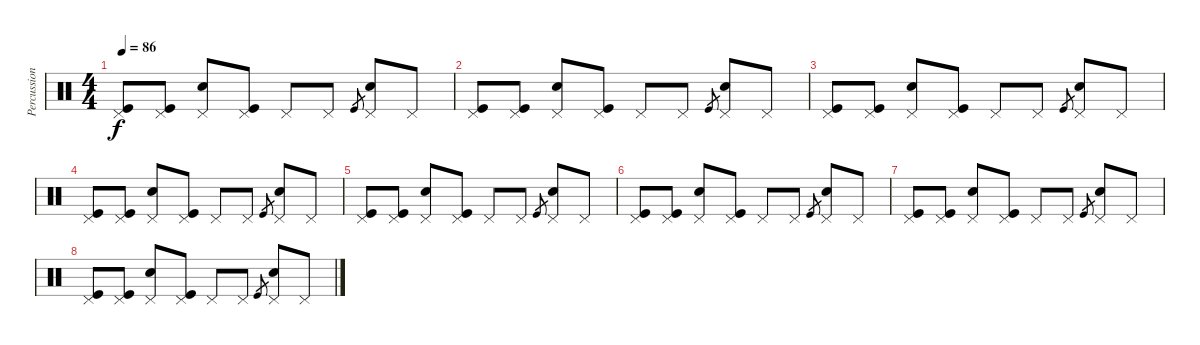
\track ("Percussions" "Percussion") {instrument percussion}
\staff {score}
\articulation defaults
\ts (4 4)
\tempo 86
\clef neutral
\ks c
("Pedal Hi-Hat (hit)" "Kick (hit)").8{dy f} ("Pedal Hi-Hat (hit)" "Kick (hit)").8 ("Pedal Hi-Hat (hit)" "Electric Snare (hit)").8 ("Pedal Hi-Hat (hit)" "Kick (hit)").8 "Pedal Hi-Hat (hit)".8 "Pedal Hi-Hat (hit)".8 "Kick (hit)".8{gr} ("Pedal Hi-Hat (hit)" "Electric Snare (hit)").8 "Pedal Hi-Hat (hit)".8 |
("Pedal Hi-Hat (hit)" "Kick (hit)").8 ("Pedal Hi-Hat (hit)" "Kick (hit)").8 ("Pedal Hi-Hat (hit)" "Electric Snare (hit)").8 ("Pedal Hi-Hat (hit)" "Kick (hit)").8 "Pedal Hi-Hat (hit)".8 "Pedal Hi-Hat (hit)".8 "Kick (hit)".8{gr} ("Pedal Hi-Hat (hit)" "Electric Snare (hit)").8 "Pedal Hi-Hat (hit)".8 |
("Pedal Hi-Hat (hit)" "Kick (hit)").8 ("Pedal Hi-Hat (hit)" "Kick (hit)").8 ("Pedal Hi-Hat (hit)" "Electric Snare (hit)").8 ("Pedal Hi-Hat (hit)" "Kick (hit)").8 "Pedal Hi-Hat (hit)".8 "Pedal Hi-Hat (hit)".8 "Kick (hit)".8{gr} ("Pedal Hi-Hat (hit)" "Electric Snare (hit)").8 "Pedal Hi-Hat (hit)".8 |
("Pedal Hi-Hat (hit)" "Kick (hit)").8 ("Pedal Hi-Hat (hit)" "Kick (hit)").8 ("Pedal Hi-Hat (hit)" "Electric Snare (hit)").8 ("Pedal Hi-Hat (hit)" "Kick (hit)").8 "Pedal Hi-Hat (hit)".8 "Pedal Hi-Hat (hit)".8 "Kick (hit)".8{gr} ("Pedal Hi-Hat (hit)" "Electric Snare (hit)").8 "Pedal Hi-Hat (hit)".8 |
("Pedal Hi-Hat (hit)" "Kick (hit)").8 ("Pedal Hi-Hat (hit)" "Kick (hit)").8 ("Pedal Hi-Hat (hit)" "Electric Snare (hit)").8 ("Pedal Hi-Hat (hit)" "Kick (hit)").8 "Pedal Hi-Hat (hit)".8 "Pedal Hi-Hat (hit)".8 "Kick (hit)".8{gr} ("Pedal Hi-Hat (hit)" "Electric Snare (hit)").8 "Pedal Hi-Hat (hit)".8 |
("Pedal Hi-Hat (hit)" "Kick (hit)").8 ("Pedal Hi-Hat (hit)" "Kick (hit)").8 ("Pedal Hi-Hat (hit)" "Electric Snare (hit)").8 ("Pedal Hi-Hat (hit)" "Kick (hit)").8 "Pedal Hi-Hat (hit)".8 "Pedal Hi-Hat (hit)".8 "Kick (hit)".8{gr} ("Pedal Hi-Hat (hit)" "Electric Snare (hit)").8 "Pedal Hi-Hat (hit)".8 |
("Pedal Hi-Hat (hit)" "Kick (hit)").8 ("Pedal Hi-Hat (hit)" "Kick (hit)").8 ("Pedal Hi-Hat (hit)" "Electric Snare (hit)").8 ("Pedal Hi-Hat (hit)" "Kick (hit)").8 "Pedal Hi-Hat (hit)".8 "Pedal Hi-Hat (hit)".8 "Kick (hit)".8{gr} ("Pedal Hi-Hat (hit)" "Electric Snare (hit)").8 "Pedal Hi-Hat (hit)".8 |
("Pedal Hi-Hat (hit)" "Kick (hit)").8 ("Pedal Hi-Hat (hit)" "Kick (hit)").8 ("Pedal Hi-Hat (hit)" "Electric Snare (hit)").8 ("Pedal Hi-Hat (hit)" "Kick (hit)").8 "Pedal Hi-Hat (hit)".8 "Pedal Hi-Hat (hit)".8 "Kick (hit)".8{gr} ("Pedal Hi-Hat (hit)" "Electric Snare (hit)").8 "Pedal Hi-Hat (hit)".8
